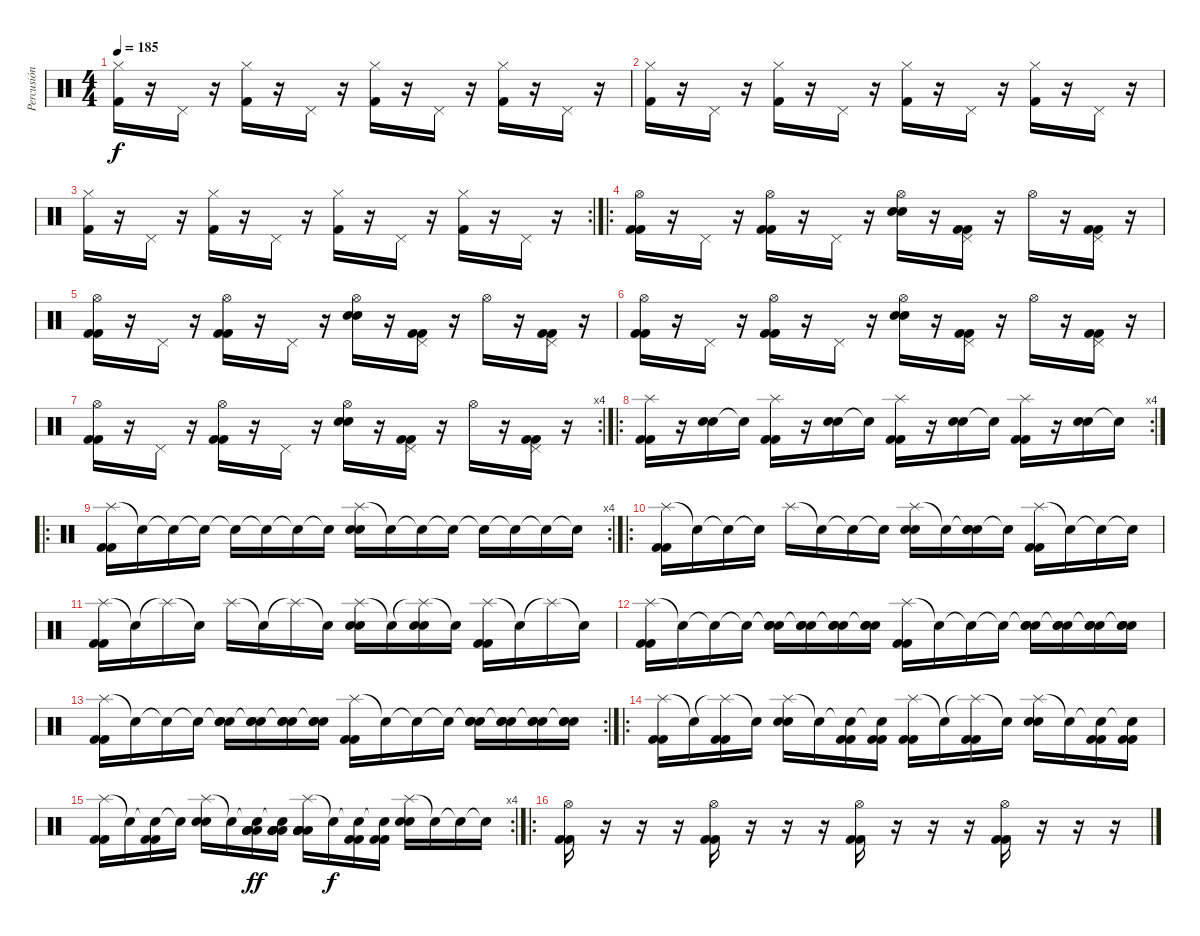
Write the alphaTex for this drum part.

\track ("Percusión" "Percusión") {instrument percussion}
\staff {score}
\articulation defaults
\ts (4 4)
\tempo 185
\clef neutral
\ks c
("Hi-Hat (closed)" "Kick (hit) 2").16{dy f} r.16 "Pedal Hi-Hat (hit)".16 r.16 ("Hi-Hat (closed)" "Kick (hit) 2").16 r.16 "Pedal Hi-Hat (hit)".16 r.16 ("Hi-Hat (closed)" "Kick (hit) 2").16 r.16 "Pedal Hi-Hat (hit)".16 r.16 ("Hi-Hat (closed)" "Kick (hit) 2").16 r.16 "Pedal Hi-Hat (hit)".16 r.16 |
("Hi-Hat (closed)" "Kick (hit) 2").16 r.16 "Pedal Hi-Hat (hit)".16 r.16 ("Hi-Hat (closed)" "Kick (hit) 2").16 r.16 "Pedal Hi-Hat (hit)".16 r.16 ("Hi-Hat (closed)" "Kick (hit) 2").16 r.16 "Pedal Hi-Hat (hit)".16 r.16 ("Hi-Hat (closed)" "Kick (hit) 2").16 r.16 "Pedal Hi-Hat (hit)".16 r.16 |
\rc 2
("Hi-Hat (closed)" "Kick (hit) 2").16 r.16 "Pedal Hi-Hat (hit)".16 r.16 ("Hi-Hat (closed)" "Kick (hit) 2").16 r.16 "Pedal Hi-Hat (hit)".16 r.16 ("Hi-Hat (closed)" "Kick (hit) 2").16 r.16 "Pedal Hi-Hat (hit)".16 r.16 ("Hi-Hat (closed)" "Kick (hit) 2").16 r.16 "Pedal Hi-Hat (hit)".16 r.16 |
\ro
("Hi-Hat (open)" "Kick (hit) 2" "Kick (hit) 2").16 r.16 "Pedal Hi-Hat (hit)".16 r.16 ("Hi-Hat (open)" "Kick (hit) 2" "Kick (hit) 2").16 r.16 "Pedal Hi-Hat (hit)".16 r.16 ("Hi-Hat (open)" "Electric Snare (hit)" "Electric Snare (hit)").16 r.16 ("Pedal Hi-Hat (hit)" "Kick (hit) 2" "Kick (hit) 2").16 r.16 "Hi-Hat (open)".16 r.16 ("Pedal Hi-Hat (hit)" "Kick (hit) 2" "Kick (hit) 2").16 r.16 |
("Hi-Hat (open)" "Kick (hit) 2" "Kick (hit) 2").16 r.16 "Pedal Hi-Hat (hit)".16 r.16 ("Hi-Hat (open)" "Kick (hit) 2" "Kick (hit) 2").16 r.16 "Pedal Hi-Hat (hit)".16 r.16 ("Hi-Hat (open)" "Electric Snare (hit)" "Electric Snare (hit)").16 r.16 ("Pedal Hi-Hat (hit)" "Kick (hit) 2" "Kick (hit) 2").16 r.16 "Hi-Hat (open)".16 r.16 ("Pedal Hi-Hat (hit)" "Kick (hit) 2" "Kick (hit) 2").16 r.16 |
("Hi-Hat (open)" "Kick (hit) 2" "Kick (hit) 2").16 r.16 "Pedal Hi-Hat (hit)".16 r.16 ("Hi-Hat (open)" "Kick (hit) 2" "Kick (hit) 2").16 r.16 "Pedal Hi-Hat (hit)".16 r.16 ("Hi-Hat (open)" "Electric Snare (hit)" "Electric Snare (hit)").16 r.16 ("Pedal Hi-Hat (hit)" "Kick (hit) 2" "Kick (hit) 2").16 r.16 "Hi-Hat (open)".16 r.16 ("Pedal Hi-Hat (hit)" "Kick (hit) 2" "Kick (hit) 2").16 r.16 |
\rc 4
("Hi-Hat (open)" "Kick (hit) 2" "Kick (hit) 2").16 r.16 "Pedal Hi-Hat (hit)".16 r.16 ("Hi-Hat (open)" "Kick (hit) 2" "Kick (hit) 2").16 r.16 "Pedal Hi-Hat (hit)".16 r.16 ("Hi-Hat (open)" "Electric Snare (hit)" "Electric Snare (hit)").16 r.16 ("Pedal Hi-Hat (hit)" "Kick (hit) 2" "Kick (hit) 2").16 r.16 "Hi-Hat (open)".16 r.16 ("Pedal Hi-Hat (hit)" "Kick (hit) 2" "Kick (hit) 2").16 r.16 |
\ro
\rc 4
("Splash (hit)" "Kick (hit) 2" "Kick (hit) 2").16 r.16 ("Electric Snare (hit)" "Electric Snare (hit)").16 "Snare (hit)"{t}.16 ("Splash (hit)" "Kick (hit) 2" "Kick (hit) 2").16 r.16 ("Electric Snare (hit)" "Electric Snare (hit)").16 "Snare (hit)"{t}.16 ("Splash (hit)" "Kick (hit) 2" "Kick (hit) 2").16 r.16 ("Electric Snare (hit)" "Electric Snare (hit)").16 "Snare (hit)"{t}.16 ("Splash (hit)" "Kick (hit) 2" "Kick (hit) 2").16 r.16 ("Electric Snare (hit)" "Electric Snare (hit)").16 "Snare (hit)"{t}.16 |
\ro
\rc 4
("Splash (hit)" "Kick (hit) 2" "Kick (hit) 2").16 "Snare (hit)"{t}.16 "Snare (hit)"{t}.16 "Snare (hit)"{t}.16 "Snare (hit)"{t}.16 "Snare (hit)"{t}.16 "Snare (hit)"{t}.16 "Snare (hit)"{t}.16 ("Splash (hit)" "Electric Snare (hit)" "Electric Snare (hit)").16 "Snare (hit)"{t}.16 "Snare (hit)"{t}.16 "Snare (hit)"{t}.16 "Snare (hit)"{t}.16 "Snare (hit)"{t}.16 "Snare (hit)"{t}.16 "Snare (hit)"{t}.16 |
\ro
("Splash (hit)" "Kick (hit) 2" "Kick (hit) 2").16 "Snare (hit)"{t}.16 "Snare (hit)"{t}.16 "Snare (hit)"{t}.16 "Splash (hit)".16 "Snare (hit)"{t}.16 "Snare (hit)"{t}.16 "Snare (hit)"{t}.16 ("Splash (hit)" "Electric Snare (hit)" "Electric Snare (hit)").16 "Snare (hit)"{t}.16 ("Snare (hit)"{t} "Electric Snare (hit)" "Electric Snare (hit)").16 "Snare (hit)"{t}.16 ("Splash (hit)" "Kick (hit) 2" "Kick (hit) 2").16 "Snare (hit)"{t}.16 "Snare (hit)"{t}.16 "Snare (hit)"{t}.16 |
("Splash (hit)" "Kick (hit) 2" "Kick (hit) 2").16 "Snare (hit)"{t}.16 "Splash (hit)"{t}.16 "Snare (hit)"{t}.16 "Splash (hit)".16 "Snare (hit)"{t}.16 "Splash (hit)"{t}.16 "Snare (hit)"{t}.16 ("Splash (hit)" "Electric Snare (hit)" "Electric Snare (hit)").16 "Snare (hit)"{t}.16 ("Splash (hit)"{t} "Electric Snare (hit)" "Electric Snare (hit)").16 "Snare (hit)"{t}.16 ("Splash (hit)" "Kick (hit) 2" "Kick (hit) 2").16 "Snare (hit)"{t}.16 "Splash (hit)"{t}.16 "Snare (hit)"{t}.16 |
("Splash (hit)" "Kick (hit) 2" "Kick (hit) 2").16 "Snare (hit)"{t}.16 "Snare (hit)"{t}.16 "Snare (hit)"{t}.16 ("Snare (hit)"{t} "Electric Snare (hit)" "Electric Snare (hit)").16 ("Snare (hit)"{t} "Electric Snare (hit)" "Electric Snare (hit)").16 ("Snare (hit)"{t} "Electric Snare (hit)" "Electric Snare (hit)").16 ("Snare (hit)"{t} "Electric Snare (hit)" "Electric Snare (hit)").16 ("Splash (hit)" "Kick (hit) 2" "Kick (hit) 2").16 "Snare (hit)"{t}.16 "Snare (hit)"{t}.16 "Snare (hit)"{t}.16 ("Snare (hit)"{t} "Electric Snare (hit)" "Electric Snare (hit)").16 ("Snare (hit)"{t} "Electric Snare (hit)" "Electric Snare (hit)").16 ("Snare (hit)"{t} "Electric Snare (hit)" "Electric Snare (hit)").16 ("Snare (hit)"{t} "Electric Snare (hit)" "Electric Snare (hit)").16 |
\rc 2
("Splash (hit)" "Kick (hit) 2" "Kick (hit) 2").16 "Snare (hit)"{t}.16 "Snare (hit)"{t}.16 "Snare (hit)"{t}.16 ("Snare (hit)"{t} "Electric Snare (hit)" "Electric Snare (hit)").16 ("Snare (hit)"{t} "Electric Snare (hit)" "Electric Snare (hit)").16 ("Snare (hit)"{t} "Electric Snare (hit)" "Electric Snare (hit)").16 ("Snare (hit)"{t} "Electric Snare (hit)" "Electric Snare (hit)").16 ("Splash (hit)" "Kick (hit) 2" "Kick (hit) 2").16 "Snare (hit)"{t}.16 "Snare (hit)"{t}.16 "Snare (hit)"{t}.16 ("Snare (hit)"{t} "Electric Snare (hit)" "Electric Snare (hit)").16 ("Snare (hit)"{t} "Electric Snare (hit)" "Electric Snare (hit)").16 ("Snare (hit)"{t} "Electric Snare (hit)" "Electric Snare (hit)").16 ("Snare (hit)"{t} "Electric Snare (hit)" "Electric Snare (hit)").16 |
\ro
("Splash (hit)" "Kick (hit) 2" "Kick (hit) 2").16 "Snare (hit)"{t}.16 ("Splash (hit)"{t} "Kick (hit) 2" "Kick (hit) 2").16 "Snare (hit)"{t}.16 ("Splash (hit)" "Electric Snare (hit)" "Electric Snare (hit)").16 "Snare (hit)"{t}.16 ("Snare (hit)"{t} "Kick (hit) 2" "Kick (hit) 2").16 ("Snare (hit)"{t} "Kick (hit) 2" "Kick (hit) 2").16 ("Splash (hit)" "Kick (hit) 2" "Kick (hit) 2").16 "Snare (hit)"{t}.16 ("Splash (hit)"{t} "Kick (hit) 2" "Kick (hit) 2").16 "Snare (hit)"{t}.16 ("Splash (hit)" "Electric Snare (hit)" "Electric Snare (hit)").16 "Snare (hit)"{t}.16 ("Snare (hit)"{t} "Kick (hit) 2" "Kick (hit) 2").16 ("Snare (hit)"{t} "Kick (hit) 2" "Kick (hit) 2").16 |
\rc 4
("Splash (hit)" "Kick (hit) 2" "Kick (hit) 2").16 "Snare (hit)"{t}.16 ("Snare (hit)"{t} "Kick (hit) 2" "Kick (hit) 2").16 "Snare (hit)"{t}.16 ("Splash (hit)" "Electric Snare (hit)" "Electric Snare (hit)").16 "Snare (hit)"{t}.16 ("Snare (hit)"{t} "Low Tom (hit)" "Low Tom (hit)" "Low Tom (hit)" "Low Tom (hit)" "Low Tom (hit)").16{dy ff} ("Snare (hit)"{t} "Low Tom (hit)" "Low Tom (hit)" "Low Tom (hit)" "Low Tom (hit)" "Low Tom (hit)").16 ("Splash (hit)" "Low Tom (hit)" "Low Tom (hit)" "Low Tom (hit)" "Low Tom (hit)" "Low Tom (hit)").16 "Snare (hit)"{t}.16{dy f} ("Snare (hit)"{t} "Kick (hit) 2" "Kick (hit) 2").16 ("Snare (hit)"{t} "Kick (hit) 2" "Kick (hit) 2").16 ("Splash (hit)" "Electric Snare (hit)" "Electric Snare (hit)").16 "Snare (hit)"{t}.16 "Snare (hit)"{t}.16 "Snare (hit)"{t}.16 |
\ro
("Hi-Hat (open)" "Kick (hit) 2" "Kick (hit) 2").16 r.16 r.16 r.16 ("Hi-Hat (open)" "Kick (hit) 2" "Kick (hit) 2").16 r.16 r.16 r.16 ("Hi-Hat (open)" "Kick (hit) 2" "Kick (hit) 2").16 r.16 r.16 r.16 ("Hi-Hat (open)" "Kick (hit) 2" "Kick (hit) 2").16 r.16 r.16 r.16
